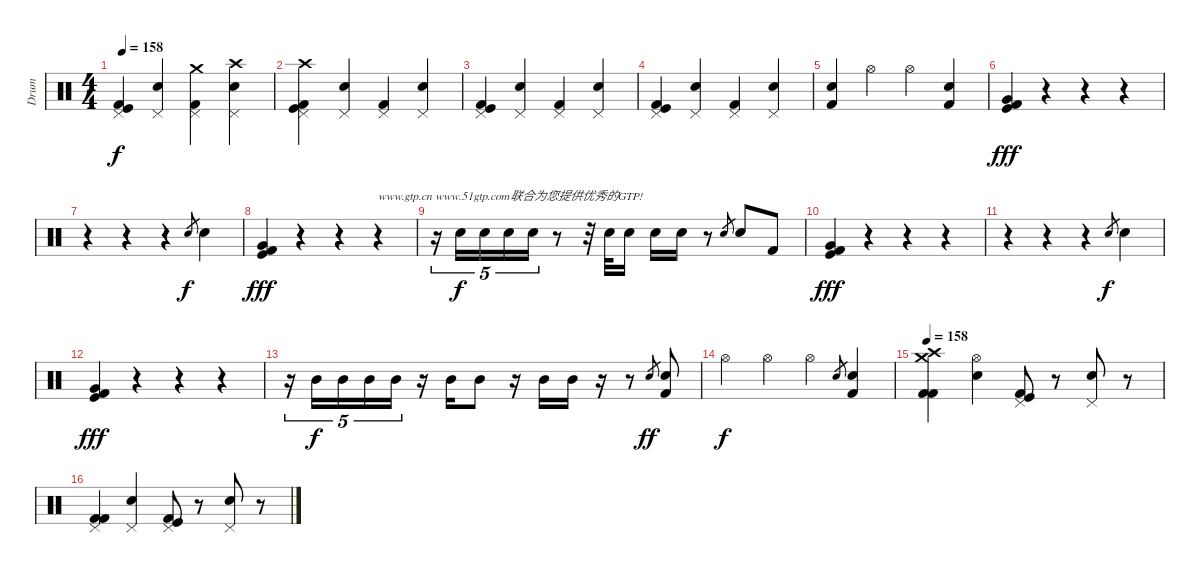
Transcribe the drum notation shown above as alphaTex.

\track ("Drum" "Drum") {instrument percussion}
\staff {score}
\articulation defaults
\ts (4 4)
\tempo 158
\clef neutral
\ks c
("Kick (hit) 2" "Kick (hit)" "Pedal Hi-Hat (hit)").4{dy f} ("Pedal Hi-Hat (hit)" "Electric Snare (hit)").4 ("Crash medium (hit)" "Kick (hit) 2" "Pedal Hi-Hat (hit)").4 ("Crash high (hit)" "Pedal Hi-Hat (hit)" "Electric Snare (hit)").4 |
("Crash high (hit)" "Kick (hit) 2" "Kick (hit)" "Pedal Hi-Hat (hit)").4 ("Pedal Hi-Hat (hit)" "Electric Snare (hit)").4 ("Kick (hit) 2" "Pedal Hi-Hat (hit)").4 ("Pedal Hi-Hat (hit)" "Electric Snare (hit)").4 |
("Kick (hit) 2" "Kick (hit)" "Pedal Hi-Hat (hit)").4 ("Pedal Hi-Hat (hit)" "Electric Snare (hit)").4 ("Kick (hit) 2" "Pedal Hi-Hat (hit)").4 ("Pedal Hi-Hat (hit)" "Electric Snare (hit)").4 |
("Kick (hit) 2" "Kick (hit)" "Pedal Hi-Hat (hit)").4 ("Pedal Hi-Hat (hit)" "Electric Snare (hit)").4 ("Kick (hit) 2" "Pedal Hi-Hat (hit)").4 ("Pedal Hi-Hat (hit)" "Electric Snare (hit)").4 |
("Electric Snare (hit)" "Kick (hit) 2").4 "Hi-Hat (open)".4 "Hi-Hat (open)".4 ("Kick (hit) 2" "Electric Snare (hit)").4 |
("Very Low Tom (hit)" "Kick (hit)" "Kick (hit) 2").4{dy fff} r.4 r.4 r.4 |
r.4 r.4 r.4 "Electric Snare (hit)".8{gr dy f} "Electric Snare (hit)".4 |
("Very Low Tom (hit)" "Kick (hit)" "Kick (hit) 2").4{dy fff} r.4 r.4 r.4{txt "www.gtp.cn www.51gtp.com联合为您提供优秀的GTP!"} |
r.16{tu (5 4)} "Electric Snare (hit)".16{tu (5 4) dy f} "Electric Snare (hit)".16{tu (5 4)} "Electric Snare (hit)".16{tu (5 4)} "Electric Snare (hit)".16{tu (5 4)} r.8 r.32 "Electric Snare (hit)".32 "Electric Snare (hit)".16 "Electric Snare (hit)".16 "Electric Snare (hit)".16 r.8 "Electric Snare (hit)".8{gr} "Electric Snare (hit)".8 "Kick (hit) 2".8 |
("Very Low Tom (hit)" "Kick (hit)" "Kick (hit) 2").4{dy fff} r.4 r.4 r.4 |
r.4 r.4 r.4 "Electric Snare (hit)".8{gr dy f} "Electric Snare (hit)".4 |
("Very Low Tom (hit)" "Kick (hit)" "Kick (hit) 2").4{dy fff} r.4 r.4 r.4 |
r.16{tu (5 4)} "Mid Tom (hit)".16{tu (5 4) dy f} "Mid Tom (hit)".16{tu (5 4)} "Mid Tom (hit)".16{tu (5 4)} "Mid Tom (hit)".16{tu (5 4)} r.16 "Mid Tom (hit)".16 "Mid Tom (hit)".8 r.16 "Mid Tom (hit)".16 "Mid Tom (hit)".16 r.16 r.8 "Electric Snare (hit)".8{gr dy ff} ("Kick (hit) 2" "Electric Snare (hit)").8 |
"Hi-Hat (open)".4{dy f} "Hi-Hat (open)".4 "Hi-Hat (open)".4 "Electric Snare (hit)".8{gr} ("Electric Snare (hit)" "Kick (hit) 2").4 |
\tempo 158
("Crash high (hit)" "Kick (hit) 2" "Kick (hit) 2" "Crash medium (hit)").4 ("Hi-Hat (open)" "Electric Snare (hit)").4 ("Pedal Hi-Hat (hit)" "Kick (hit) 2" "Kick (hit)").8 r.8 ("Pedal Hi-Hat (hit)" "Electric Snare (hit)").8 r.8 |
("Pedal Hi-Hat (hit)" "Kick (hit) 2" "Kick (hit) 2").4 ("Pedal Hi-Hat (hit)" "Electric Snare (hit)").4 ("Pedal Hi-Hat (hit)" "Kick (hit) 2" "Kick (hit)").8 r.8 ("Pedal Hi-Hat (hit)" "Electric Snare (hit)").8 r.8
